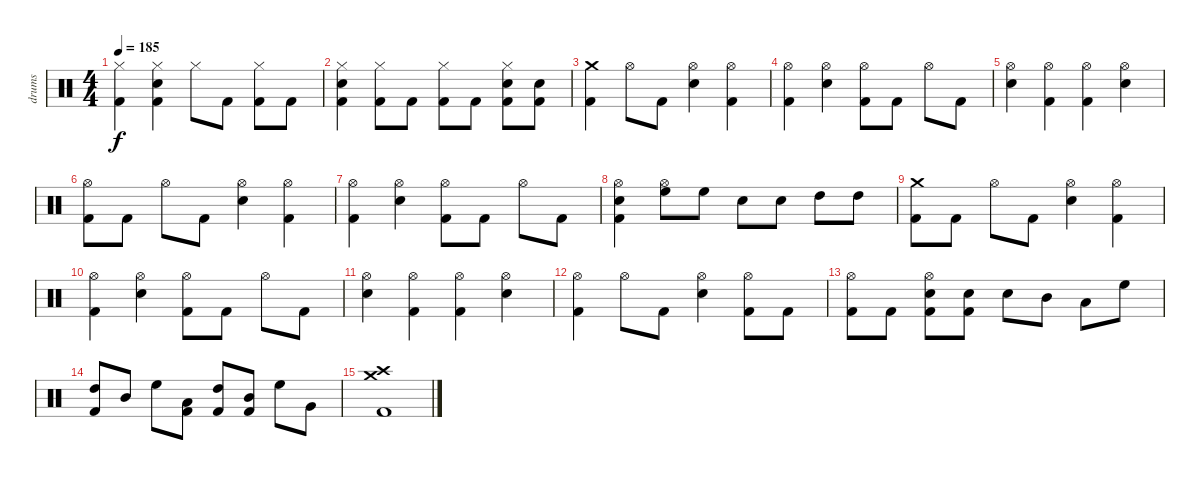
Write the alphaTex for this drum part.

\track ("drums" "drums") {instrument percussion}
\staff {score}
\articulation defaults
\ts (4 4)
\tempo 185
\clef neutral
\ks c
("Hi-Hat (closed)" "Kick (hit) 2").4{dy f} ("Hi-Hat (closed)" "Electric Snare (hit)" "Kick (hit) 2").4 "Hi-Hat (closed)".8 "Kick (hit) 2".8 ("Hi-Hat (closed)" "Kick (hit) 2").8 "Kick (hit) 2".8 |
("Hi-Hat (closed)" "Electric Snare (hit)" "Kick (hit) 2").4 ("Hi-Hat (closed)" "Kick (hit) 2").8 "Kick (hit) 2".8 ("Hi-Hat (closed)" "Kick (hit) 2").8 "Kick (hit) 2".8 ("Hi-Hat (closed)" "Electric Snare (hit)" "Kick (hit) 2").8 ("Electric Snare (hit)" "Kick (hit) 2").8 |
("Crash medium (hit)" "Kick (hit) 2").4 "Hi-Hat (open)".8 "Kick (hit) 2".8 ("Hi-Hat (open)" "Electric Snare (hit)").4 ("Hi-Hat (open)" "Kick (hit) 2").4 |
("Hi-Hat (open)" "Kick (hit) 2").4 ("Hi-Hat (open)" "Electric Snare (hit)").4 ("Hi-Hat (open)" "Kick (hit) 2").8 "Kick (hit) 2".8 "Hi-Hat (open)".8 "Kick (hit) 2".8 |
("Hi-Hat (open)" "Electric Snare (hit)").4 ("Hi-Hat (open)" "Kick (hit) 2").4 ("Hi-Hat (open)" "Kick (hit) 2").4 ("Hi-Hat (open)" "Electric Snare (hit)").4 |
("Hi-Hat (open)" "Kick (hit) 2").8 "Kick (hit) 2".8 "Hi-Hat (open)".8 "Kick (hit) 2".8 ("Hi-Hat (open)" "Electric Snare (hit)").4 ("Hi-Hat (open)" "Kick (hit) 2").4 |
("Hi-Hat (open)" "Kick (hit) 2").4 ("Hi-Hat (open)" "Electric Snare (hit)").4 ("Hi-Hat (open)" "Kick (hit) 2").8 "Kick (hit) 2".8 "Hi-Hat (open)".8 "Kick (hit) 2".8 |
("Hi-Hat (open)" "Electric Snare (hit)" "Kick (hit) 2").4 ("Hi-Hat (open)" "High Floor Tom (hit)").8 "High Floor Tom (hit)".8 "Electric Snare (hit)".8 "Electric Snare (hit)".8 "High Tom (hit)".8 "High Tom (hit)".8 |
("Crash medium (hit)" "Kick (hit) 2").8 "Kick (hit) 2".8 "Hi-Hat (open)".8 "Kick (hit) 2".8 ("Hi-Hat (open)" "Electric Snare (hit)").4 ("Hi-Hat (open)" "Kick (hit) 2").4 |
("Hi-Hat (open)" "Kick (hit) 2").4 ("Hi-Hat (open)" "Electric Snare (hit)").4 ("Hi-Hat (open)" "Kick (hit) 2").8 "Kick (hit) 2".8 "Hi-Hat (open)".8 "Kick (hit) 2".8 |
("Hi-Hat (open)" "Electric Snare (hit)").4 ("Hi-Hat (open)" "Kick (hit) 2").4 ("Hi-Hat (open)" "Kick (hit) 2").4 ("Hi-Hat (open)" "Electric Snare (hit)").4 |
("Hi-Hat (open)" "Kick (hit) 2").4 "Hi-Hat (open)".8 "Kick (hit) 2".8 ("Hi-Hat (open)" "Electric Snare (hit)").4 ("Hi-Hat (open)" "Kick (hit) 2").8 "Kick (hit) 2".8 |
("Hi-Hat (open)" "Kick (hit) 2").8 "Kick (hit) 2".8 ("Hi-Hat (open)" "Electric Snare (hit)" "Kick (hit) 2").8 ("Electric Snare (hit)" "Kick (hit) 2").8 "Electric Snare (hit)".8 "Mid Tom (hit)".8 "Low Tom (hit)".8 "High Floor Tom (hit)".8 |
("High Tom (hit)" "Kick (hit) 2").8 "Mid Tom (hit)".8 "High Floor Tom (hit)".8 ("Low Tom (hit)" "Kick (hit) 2").8 ("High Tom (hit)" "Kick (hit) 2").8 ("Mid Tom (hit)" "Kick (hit) 2").8 "High Floor Tom (hit)".8 "Very Low Tom (hit)".8 |
("Crash medium (hit)" "Crash high (hit)" "Kick (hit) 2").1
